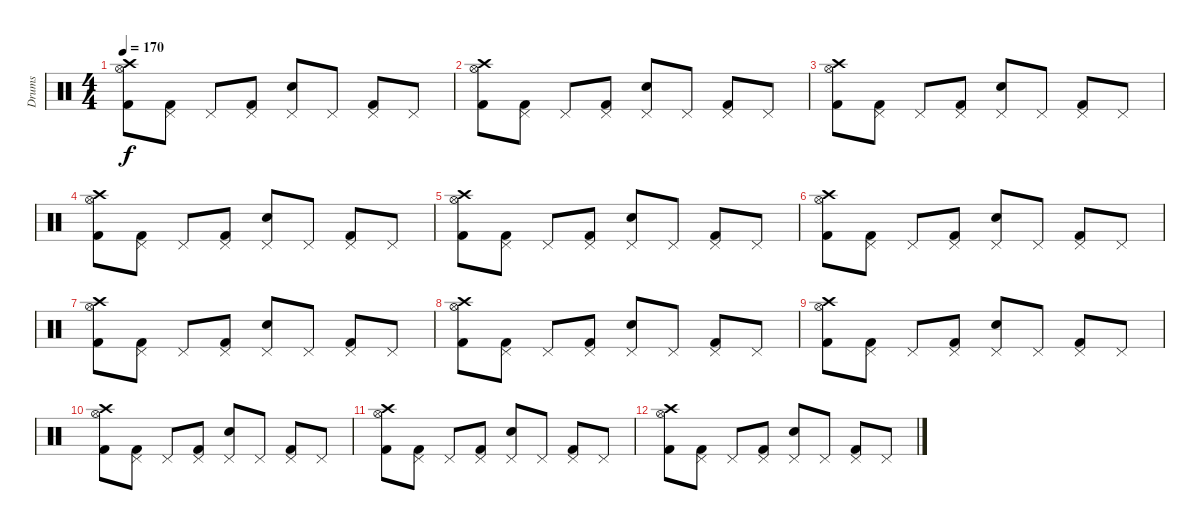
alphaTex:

\track ("Drums" "Drums") {instrument percussion}
\staff {score}
\articulation defaults
\ts (4 4)
\tempo 170
\clef neutral
\ks c
("Hi-Hat (open)" "Kick (hit) 2" "Crash high (hit)").8{dy f} ("Pedal Hi-Hat (hit)" "Kick (hit) 2").8 "Pedal Hi-Hat (hit)".8 ("Pedal Hi-Hat (hit)" "Kick (hit) 2").8 ("Pedal Hi-Hat (hit)" "Electric Snare (hit)").8 "Pedal Hi-Hat (hit)".8 ("Pedal Hi-Hat (hit)" "Kick (hit) 2").8 "Pedal Hi-Hat (hit)".8 |
("Hi-Hat (open)" "Kick (hit) 2" "Crash high (hit)").8 ("Pedal Hi-Hat (hit)" "Kick (hit) 2").8 "Pedal Hi-Hat (hit)".8 ("Pedal Hi-Hat (hit)" "Kick (hit) 2").8 ("Pedal Hi-Hat (hit)" "Electric Snare (hit)").8 "Pedal Hi-Hat (hit)".8 ("Pedal Hi-Hat (hit)" "Kick (hit) 2").8 "Pedal Hi-Hat (hit)".8 |
("Hi-Hat (open)" "Kick (hit) 2" "Crash high (hit)").8 ("Pedal Hi-Hat (hit)" "Kick (hit) 2").8 "Pedal Hi-Hat (hit)".8 ("Pedal Hi-Hat (hit)" "Kick (hit) 2").8 ("Pedal Hi-Hat (hit)" "Electric Snare (hit)").8 "Pedal Hi-Hat (hit)".8 ("Pedal Hi-Hat (hit)" "Kick (hit) 2").8 "Pedal Hi-Hat (hit)".8 |
("Hi-Hat (open)" "Kick (hit) 2" "Crash high (hit)").8 ("Pedal Hi-Hat (hit)" "Kick (hit) 2").8 "Pedal Hi-Hat (hit)".8 ("Pedal Hi-Hat (hit)" "Kick (hit) 2").8 ("Pedal Hi-Hat (hit)" "Electric Snare (hit)").8 "Pedal Hi-Hat (hit)".8 ("Pedal Hi-Hat (hit)" "Kick (hit) 2").8 "Pedal Hi-Hat (hit)".8 |
("Hi-Hat (open)" "Kick (hit) 2" "Crash high (hit)").8 ("Pedal Hi-Hat (hit)" "Kick (hit) 2").8 "Pedal Hi-Hat (hit)".8 ("Pedal Hi-Hat (hit)" "Kick (hit) 2").8 ("Pedal Hi-Hat (hit)" "Electric Snare (hit)").8 "Pedal Hi-Hat (hit)".8 ("Pedal Hi-Hat (hit)" "Kick (hit) 2").8 "Pedal Hi-Hat (hit)".8 |
("Hi-Hat (open)" "Kick (hit) 2" "Crash high (hit)").8 ("Pedal Hi-Hat (hit)" "Kick (hit) 2").8 "Pedal Hi-Hat (hit)".8 ("Pedal Hi-Hat (hit)" "Kick (hit) 2").8 ("Pedal Hi-Hat (hit)" "Electric Snare (hit)").8 "Pedal Hi-Hat (hit)".8 ("Pedal Hi-Hat (hit)" "Kick (hit) 2").8 "Pedal Hi-Hat (hit)".8 |
("Hi-Hat (open)" "Kick (hit) 2" "Crash high (hit)").8 ("Pedal Hi-Hat (hit)" "Kick (hit) 2").8 "Pedal Hi-Hat (hit)".8 ("Pedal Hi-Hat (hit)" "Kick (hit) 2").8 ("Pedal Hi-Hat (hit)" "Electric Snare (hit)").8 "Pedal Hi-Hat (hit)".8 ("Pedal Hi-Hat (hit)" "Kick (hit) 2").8 "Pedal Hi-Hat (hit)".8 |
("Hi-Hat (open)" "Kick (hit) 2" "Crash high (hit)").8 ("Pedal Hi-Hat (hit)" "Kick (hit) 2").8 "Pedal Hi-Hat (hit)".8 ("Pedal Hi-Hat (hit)" "Kick (hit) 2").8 ("Pedal Hi-Hat (hit)" "Electric Snare (hit)").8 "Pedal Hi-Hat (hit)".8 ("Pedal Hi-Hat (hit)" "Kick (hit) 2").8 "Pedal Hi-Hat (hit)".8 |
("Hi-Hat (open)" "Kick (hit) 2" "Crash high (hit)").8 ("Pedal Hi-Hat (hit)" "Kick (hit) 2").8 "Pedal Hi-Hat (hit)".8 ("Pedal Hi-Hat (hit)" "Kick (hit) 2").8 ("Pedal Hi-Hat (hit)" "Electric Snare (hit)").8 "Pedal Hi-Hat (hit)".8 ("Pedal Hi-Hat (hit)" "Kick (hit) 2").8 "Pedal Hi-Hat (hit)".8 |
("Hi-Hat (open)" "Kick (hit) 2" "Crash high (hit)").8 ("Pedal Hi-Hat (hit)" "Kick (hit) 2").8 "Pedal Hi-Hat (hit)".8 ("Pedal Hi-Hat (hit)" "Kick (hit) 2").8 ("Pedal Hi-Hat (hit)" "Electric Snare (hit)").8 "Pedal Hi-Hat (hit)".8 ("Pedal Hi-Hat (hit)" "Kick (hit) 2").8 "Pedal Hi-Hat (hit)".8 |
("Hi-Hat (open)" "Kick (hit) 2" "Crash high (hit)").8 ("Pedal Hi-Hat (hit)" "Kick (hit) 2").8 "Pedal Hi-Hat (hit)".8 ("Pedal Hi-Hat (hit)" "Kick (hit) 2").8 ("Pedal Hi-Hat (hit)" "Electric Snare (hit)").8 "Pedal Hi-Hat (hit)".8 ("Pedal Hi-Hat (hit)" "Kick (hit) 2").8 "Pedal Hi-Hat (hit)".8 |
("Hi-Hat (open)" "Kick (hit) 2" "Crash high (hit)").8 ("Pedal Hi-Hat (hit)" "Kick (hit) 2").8 "Pedal Hi-Hat (hit)".8 ("Pedal Hi-Hat (hit)" "Kick (hit) 2").8 ("Pedal Hi-Hat (hit)" "Electric Snare (hit)").8 "Pedal Hi-Hat (hit)".8 ("Pedal Hi-Hat (hit)" "Kick (hit) 2").8 "Pedal Hi-Hat (hit)".8
